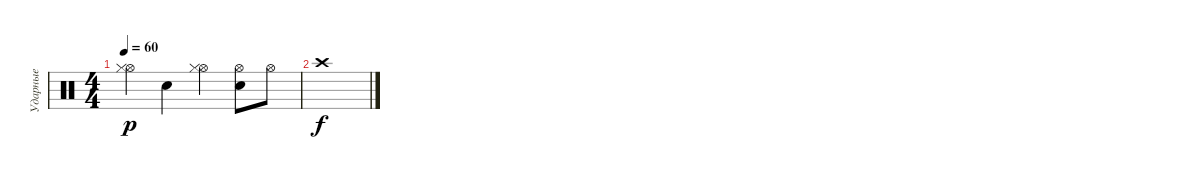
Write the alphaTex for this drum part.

\track ("Ударные" "Ударные") {instrument percussion}
\staff {score}
\articulation defaults
\ts (4 4)
\tempo 60
\clef neutral
\ks c
("Hi-Hat (open)" "Hi-Hat (closed)").4{dy p} "Electric Snare (hit)".4 ("Hi-Hat (open)" "Hi-Hat (closed)").4 ("Hi-Hat (open)" "Electric Snare (hit)").8 "Hi-Hat (open)".8 |
"Crash high (hit)".1{dy f}
